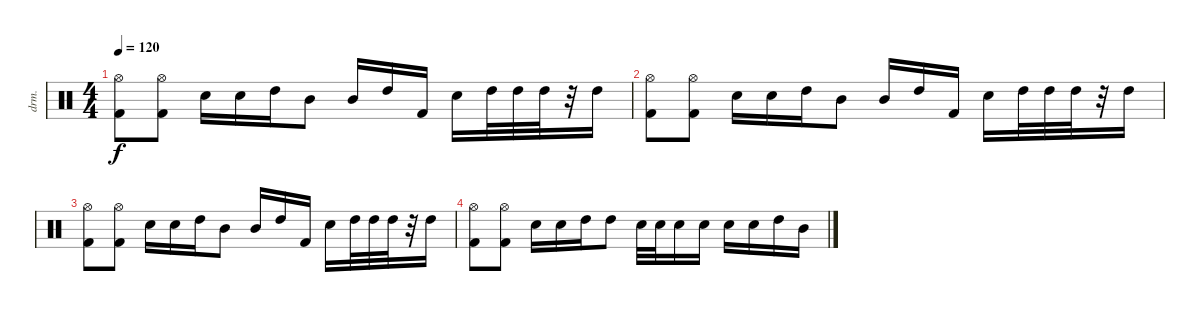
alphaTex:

\defaultSystemsLayout 4
\bracketExtendMode groupsimilarinstruments
\otherSystemsTrackNameOrientation horizontal
\track ("Drumkit" "drm.") {instrument percussion}
\staff {score}
\articulation defaults
\ts (4 4)
\tempo 120
\clef neutral
\ks c
("Kick (hit) 2" "Hi-Hat (open)").8{dy f beam Down} ("Hi-Hat (open)" "Kick (hit) 2").8{beam Down} "Snare (hit) 2".16{beam Down} "Snare (hit) 2".16{beam Down} "High Tom (hit)".16{beam Down} "Mid Tom (hit)".8{beam Down} "Mid Tom (hit)".16{beam Up} "High Tom (hit)".16{beam Up} "Kick (hit) 2".16{beam Up} "Snare (hit) 2".16{beam Down} "High Tom (hit)".32{beam Down} "High Tom (hit)".32{beam Down} "High Tom (hit)".32{beam Down} r.32{beam Down} "High Tom (hit)".16{beam Down} |
("Kick (hit) 2" "Hi-Hat (open)").8{beam Down} ("Hi-Hat (open)" "Kick (hit) 2").8{beam Down} "Snare (hit) 2".16{beam Down} "Snare (hit) 2".16{beam Down} "High Tom (hit)".16{beam Down} "Mid Tom (hit)".8{beam Down} "Mid Tom (hit)".16{beam Up} "High Tom (hit)".16{beam Up} "Kick (hit) 2".16{beam Up} "Snare (hit) 2".16{beam Down} "High Tom (hit)".32{beam Down} "High Tom (hit)".32{beam Down} "High Tom (hit)".32{beam Down} r.32{beam Down} "High Tom (hit)".16{beam Down} |
("Kick (hit) 2" "Hi-Hat (open)").8{beam Down} ("Hi-Hat (open)" "Kick (hit) 2").8{beam Down} "Snare (hit) 2".16{beam Down} "Snare (hit) 2".16{beam Down} "High Tom (hit)".16{beam Down} "Mid Tom (hit)".8{beam Down} "Mid Tom (hit)".16{beam Up} "High Tom (hit)".16{beam Up} "Kick (hit) 2".16{beam Up} "Snare (hit) 2".16{beam Down} "High Tom (hit)".32{beam Down} "High Tom (hit)".32{beam Down} "High Tom (hit)".32{beam Down} r.32{beam Down} "High Tom (hit)".16{beam Down} |
("Kick (hit) 2" "Hi-Hat (open)").8{beam Down} ("Hi-Hat (open)" "Kick (hit) 2").8{beam Down} "Snare (hit) 2".16{beam Down} "Snare (hit) 2".16{beam Down} "High Tom (hit)".16{beam Down} "High Tom (hit)".8{beam Down} "Snare (hit) 2".32{beam Down} "Snare (hit) 2".32{beam Down} "Snare (hit) 2".16{beam Down} "Snare (hit) 2".16{beam Down} "Snare (hit) 2".16{beam Down} "Snare (hit) 2".16{beam Down} "High Tom (hit)".16{beam Down} "Mid Tom (hit)".16{beam Down}
